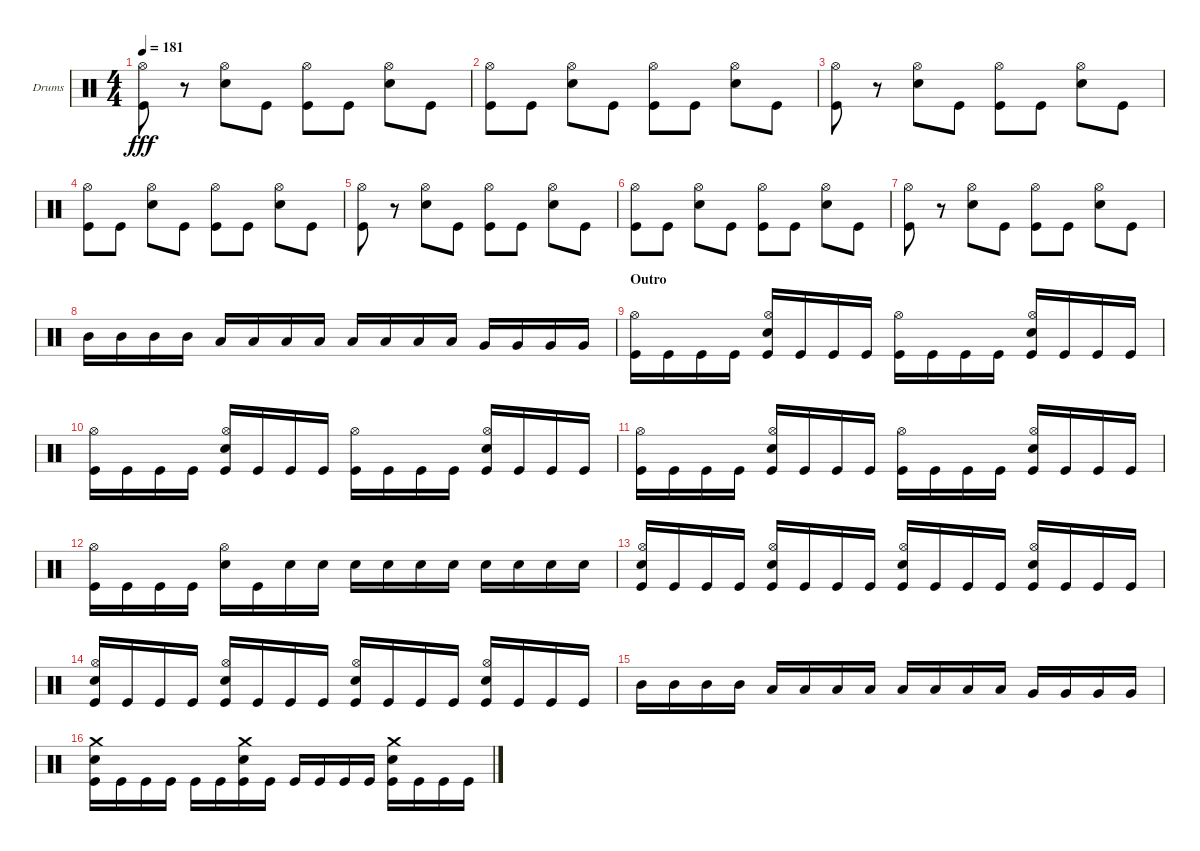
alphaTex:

\bracketExtendMode groupsimilarinstruments
\firstSystemTrackNameOrientation horizontal
\otherSystemsTrackNameOrientation horizontal
\track ("Drumkit" "Drums") {solo instrument percussion}
\staff {score}
\articulation defaults
\ts (4 4)
\tempo 181
\clef neutral
\scale
0.333333
\ks c
("Kick (hit)" "Hi-Hat (open)").8{dy fff} r.8 ("Hi-Hat (open)" "Snare (hit) 2").8 "Kick (hit)".8 ("Kick (hit)" "Hi-Hat (open)").8 "Kick (hit)".8 ("Hi-Hat (open)" "Snare (hit) 2").8 "Kick (hit)".8 |
\scale
0.333333 ("Kick (hit)" "Hi-Hat (open)").8 "Kick (hit)".8 ("Hi-Hat (open)" "Snare (hit) 2").8 "Kick (hit)".8 ("Kick (hit)" "Hi-Hat (open)").8 "Kick (hit)".8 ("Hi-Hat (open)" "Snare (hit) 2").8 "Kick (hit)".8 |
\scale
0.333333 ("Kick (hit)" "Hi-Hat (open)").8 r.8 ("Hi-Hat (open)" "Snare (hit) 2").8 "Kick (hit)".8 ("Kick (hit)" "Hi-Hat (open)").8 "Kick (hit)".8 ("Hi-Hat (open)" "Snare (hit) 2").8 "Kick (hit)".8 |
\scale
0.333333 ("Kick (hit)" "Hi-Hat (open)").8 "Kick (hit)".8 ("Hi-Hat (open)" "Snare (hit) 2").8 "Kick (hit)".8 ("Kick (hit)" "Hi-Hat (open)").8 "Kick (hit)".8 ("Hi-Hat (open)" "Snare (hit) 2").8 "Kick (hit)".8 |
\scale
0.333333 ("Kick (hit)" "Hi-Hat (open)").8 r.8 ("Hi-Hat (open)" "Snare (hit) 2").8 "Kick (hit)".8 ("Kick (hit)" "Hi-Hat (open)").8 "Kick (hit)".8 ("Hi-Hat (open)" "Snare (hit) 2").8 "Kick (hit)".8 |
\scale
0.333333 ("Kick (hit)" "Hi-Hat (open)").8 "Kick (hit)".8 ("Hi-Hat (open)" "Snare (hit) 2").8 "Kick (hit)".8 ("Kick (hit)" "Hi-Hat (open)").8 "Kick (hit)".8 ("Hi-Hat (open)" "Snare (hit) 2").8 "Kick (hit)".8 |
\scale
0.333333 ("Kick (hit)" "Hi-Hat (open)").8 r.8 ("Hi-Hat (open)" "Snare (hit) 2").8 "Kick (hit)".8 ("Kick (hit)" "Hi-Hat (open)").8 "Kick (hit)".8 ("Hi-Hat (open)" "Snare (hit) 2").8 "Kick (hit)".8 |
\scale
0.333333 "Mid Tom (hit)".16 "Mid Tom (hit)".16 "Mid Tom (hit)".16 "Mid Tom (hit)".16 "Low Tom (hit)".16 "Low Tom (hit)".16 "Low Tom (hit)".16 "Low Tom (hit)".16 "Low Tom (hit)".16 "Low Tom (hit)".16 "Low Tom (hit)".16 "Low Tom (hit)".16 "Very Low Tom (hit)".16 "Very Low Tom (hit)".16 "Very Low Tom (hit)".16 "Very Low Tom (hit)".16 |
\section ("" "Outro")
\scale
0.333333 ("Kick (hit)" "Hi-Hat (open)").16 "Kick (hit)".16 "Kick (hit)".16 "Kick (hit)".16 ("Kick (hit)" "Snare (hit) 2" "Hi-Hat (open)").16 "Kick (hit)".16 "Kick (hit)".16 "Kick (hit)".16 ("Kick (hit)" "Hi-Hat (open)").16 "Kick (hit)".16 "Kick (hit)".16 "Kick (hit)".16 ("Kick (hit)" "Hi-Hat (open)" "Snare (hit) 2").16 "Kick (hit)".16 "Kick (hit)".16 "Kick (hit)".16 |
\scale
0.333333 ("Kick (hit)" "Hi-Hat (open)").16 "Kick (hit)".16 "Kick (hit)".16 "Kick (hit)".16 ("Kick (hit)" "Snare (hit) 2" "Hi-Hat (open)").16 "Kick (hit)".16 "Kick (hit)".16 "Kick (hit)".16 ("Kick (hit)" "Hi-Hat (open)").16 "Kick (hit)".16 "Kick (hit)".16 "Kick (hit)".16 ("Kick (hit)" "Hi-Hat (open)" "Snare (hit) 2").16 "Kick (hit)".16 "Kick (hit)".16 "Kick (hit)".16 |
\scale
0.333333 ("Kick (hit)" "Hi-Hat (open)").16 "Kick (hit)".16 "Kick (hit)".16 "Kick (hit)".16 ("Kick (hit)" "Snare (hit) 2" "Hi-Hat (open)").16 "Kick (hit)".16 "Kick (hit)".16 "Kick (hit)".16 ("Kick (hit)" "Hi-Hat (open)").16 "Kick (hit)".16 "Kick (hit)".16 "Kick (hit)".16 ("Kick (hit)" "Hi-Hat (open)" "Snare (hit) 2").16 "Kick (hit)".16 "Kick (hit)".16 "Kick (hit)".16 |
\scale
0.333333 ("Kick (hit)" "Hi-Hat (open)").16 "Kick (hit)".16 "Kick (hit)".16 "Kick (hit)".16 ("Snare (hit) 2" "Hi-Hat (open)").16 "Kick (hit)".16 "Snare (hit) 2".16 "Snare (hit) 2".16 "Snare (hit) 2".16 "Snare (hit) 2".16 "Snare (hit) 2".16 "Snare (hit) 2".16 "Snare (hit) 2".16 "Snare (hit) 2".16 "Snare (hit) 2".16 "Snare (hit) 2".16 |
\scale
0.333333 ("Kick (hit)" "Hi-Hat (open)" "Snare (hit) 2").16 "Kick (hit)".16 "Kick (hit)".16 "Kick (hit)".16 ("Kick (hit)" "Snare (hit) 2" "Hi-Hat (open)").16 "Kick (hit)".16 "Kick (hit)".16 "Kick (hit)".16 ("Kick (hit)" "Hi-Hat (open)" "Snare (hit) 2").16 "Kick (hit)".16 "Kick (hit)".16 "Kick (hit)".16 ("Kick (hit)" "Hi-Hat (open)" "Snare (hit) 2").16 "Kick (hit)".16 "Kick (hit)".16 "Kick (hit)".16 |
\scale
0.333333 ("Kick (hit)" "Hi-Hat (open)" "Snare (hit) 2").16 "Kick (hit)".16 "Kick (hit)".16 "Kick (hit)".16 ("Kick (hit)" "Snare (hit) 2" "Hi-Hat (open)").16 "Kick (hit)".16 "Kick (hit)".16 "Kick (hit)".16 ("Kick (hit)" "Hi-Hat (open)" "Snare (hit) 2").16 "Kick (hit)".16 "Kick (hit)".16 "Kick (hit)".16 ("Kick (hit)" "Hi-Hat (open)" "Snare (hit) 2").16 "Kick (hit)".16 "Kick (hit)".16 "Kick (hit)".16 |
\scale
0.333333 "Mid Tom (hit)".16 "Mid Tom (hit)".16 "Mid Tom (hit)".16 "Mid Tom (hit)".16 "Low Tom (hit)".16 "Low Tom (hit)".16 "Low Tom (hit)".16 "Low Tom (hit)".16 "Low Tom (hit)".16 "Low Tom (hit)".16 "Low Tom (hit)".16 "Low Tom (hit)".16 "Very Low Tom (hit)".16 "Very Low Tom (hit)".16 "Very Low Tom (hit)".16 "Very Low Tom (hit)".16 |
\scale
0.333333 ("Kick (hit)" "Snare (hit) 2" "Crash medium (hit)").16 "Kick (hit)".16 "Kick (hit)".16 "Kick (hit)".16 "Kick (hit)".16 "Kick (hit)".16 ("Kick (hit)" "Snare (hit) 2" "Crash medium (hit)").16 "Kick (hit)".16 "Kick (hit)".16 "Kick (hit)".16 "Kick (hit)".16 "Kick (hit)".16 ("Kick (hit)" "Snare (hit) 2" "Crash medium (hit)").16 "Kick (hit)".16 "Kick (hit)".16 "Kick (hit)".16
